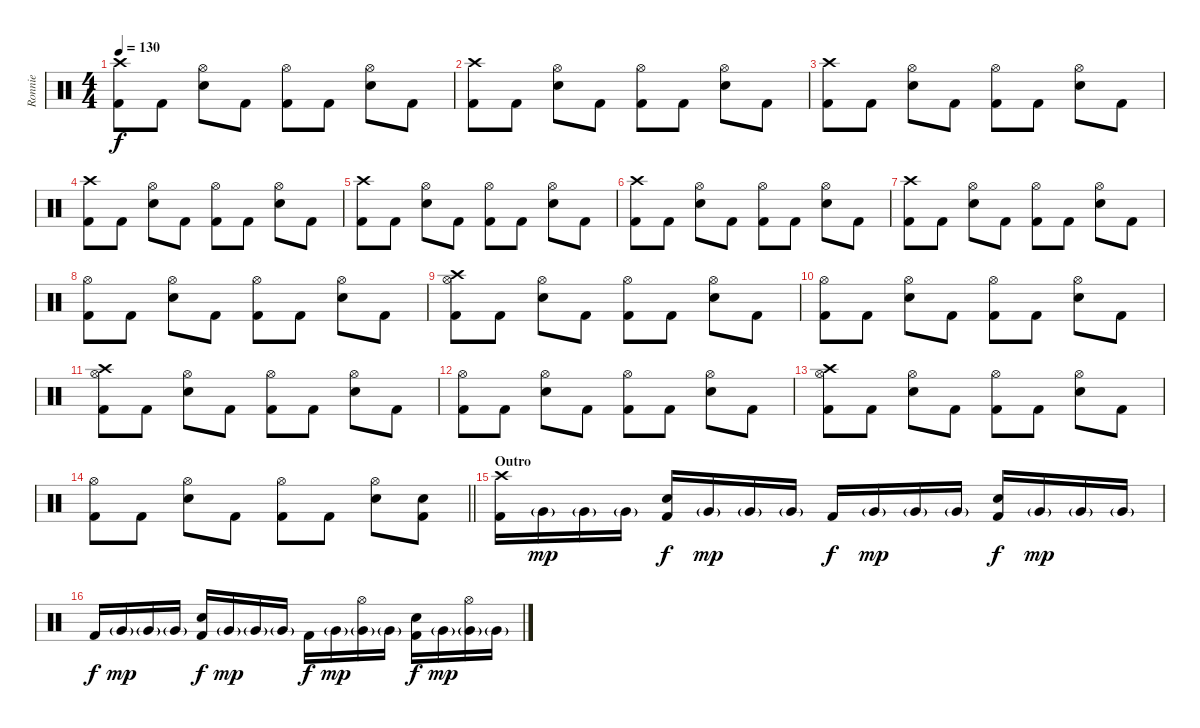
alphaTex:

\track ("Ronnie" "Ronnie") {instrument percussion}
\staff {score}
\articulation defaults
\ts (4 4)
\tempo 130
\clef neutral
\ks c
("Kick (hit) 2" "Crash high (hit)").8{dy f} "Kick (hit) 2".8 ("Electric Snare (hit)" "Hi-Hat (open)").8 "Kick (hit) 2".8 ("Kick (hit) 2" "Hi-Hat (open)").8 "Kick (hit) 2".8 ("Electric Snare (hit)" "Hi-Hat (open)").8 "Kick (hit) 2".8 |
("Kick (hit) 2" "Crash high (hit)").8 "Kick (hit) 2".8 ("Electric Snare (hit)" "Hi-Hat (open)").8 "Kick (hit) 2".8 ("Kick (hit) 2" "Hi-Hat (open)").8 "Kick (hit) 2".8 ("Electric Snare (hit)" "Hi-Hat (open)").8 "Kick (hit) 2".8 |
("Kick (hit) 2" "Crash high (hit)").8 "Kick (hit) 2".8 ("Electric Snare (hit)" "Hi-Hat (open)").8 "Kick (hit) 2".8 ("Kick (hit) 2" "Hi-Hat (open)").8 "Kick (hit) 2".8 ("Electric Snare (hit)" "Hi-Hat (open)").8 "Kick (hit) 2".8 |
("Kick (hit) 2" "Crash high (hit)").8 "Kick (hit) 2".8 ("Electric Snare (hit)" "Hi-Hat (open)").8 "Kick (hit) 2".8 ("Kick (hit) 2" "Hi-Hat (open)").8 "Kick (hit) 2".8 ("Electric Snare (hit)" "Hi-Hat (open)").8 "Kick (hit) 2".8 |
("Kick (hit) 2" "Crash high (hit)").8 "Kick (hit) 2".8 ("Electric Snare (hit)" "Hi-Hat (open)").8 "Kick (hit) 2".8 ("Kick (hit) 2" "Hi-Hat (open)").8 "Kick (hit) 2".8 ("Electric Snare (hit)" "Hi-Hat (open)").8 "Kick (hit) 2".8 |
("Kick (hit) 2" "Crash high (hit)").8 "Kick (hit) 2".8 ("Electric Snare (hit)" "Hi-Hat (open)").8 "Kick (hit) 2".8 ("Kick (hit) 2" "Hi-Hat (open)").8 "Kick (hit) 2".8 ("Electric Snare (hit)" "Hi-Hat (open)").8 "Kick (hit) 2".8 |
("Kick (hit) 2" "Crash high (hit)").8 "Kick (hit) 2".8 ("Electric Snare (hit)" "Hi-Hat (open)").8 "Kick (hit) 2".8 ("Kick (hit) 2" "Hi-Hat (open)").8 "Kick (hit) 2".8 ("Electric Snare (hit)" "Hi-Hat (open)").8 "Kick (hit) 2".8 |
("Kick (hit) 2" "Hi-Hat (open)").8 "Kick (hit) 2".8 ("Electric Snare (hit)" "Hi-Hat (open)").8 "Kick (hit) 2".8 ("Kick (hit) 2" "Hi-Hat (open)").8 "Kick (hit) 2".8 ("Electric Snare (hit)" "Hi-Hat (open)").8 "Kick (hit) 2".8 |
("Crash high (hit)" "Kick (hit) 2" "Hi-Hat (open)").8 "Kick (hit) 2".8 ("Electric Snare (hit)" "Hi-Hat (open)").8 "Kick (hit) 2".8 ("Kick (hit) 2" "Hi-Hat (open)").8 "Kick (hit) 2".8 ("Electric Snare (hit)" "Hi-Hat (open)").8 "Kick (hit) 2".8 |
("Kick (hit) 2" "Hi-Hat (open)").8 "Kick (hit) 2".8 ("Electric Snare (hit)" "Hi-Hat (open)").8 "Kick (hit) 2".8 ("Kick (hit) 2" "Hi-Hat (open)").8 "Kick (hit) 2".8 ("Electric Snare (hit)" "Hi-Hat (open)").8 "Kick (hit) 2".8 |
("Crash high (hit)" "Kick (hit) 2" "Hi-Hat (open)").8 "Kick (hit) 2".8 ("Electric Snare (hit)" "Hi-Hat (open)").8 "Kick (hit) 2".8 ("Kick (hit) 2" "Hi-Hat (open)").8 "Kick (hit) 2".8 ("Electric Snare (hit)" "Hi-Hat (open)").8 "Kick (hit) 2".8 |
("Kick (hit) 2" "Hi-Hat (open)").8 "Kick (hit) 2".8 ("Electric Snare (hit)" "Hi-Hat (open)").8 "Kick (hit) 2".8 ("Kick (hit) 2" "Hi-Hat (open)").8 "Kick (hit) 2".8 ("Electric Snare (hit)" "Hi-Hat (open)").8 "Kick (hit) 2".8 |
("Crash high (hit)" "Kick (hit) 2" "Hi-Hat (open)").8 "Kick (hit) 2".8 ("Electric Snare (hit)" "Hi-Hat (open)").8 "Kick (hit) 2".8 ("Kick (hit) 2" "Hi-Hat (open)").8 "Kick (hit) 2".8 ("Electric Snare (hit)" "Hi-Hat (open)").8 "Kick (hit) 2".8 |
\barLineRight lightlight
("Kick (hit) 2" "Hi-Hat (open)").8 "Kick (hit) 2".8 ("Electric Snare (hit)" "Hi-Hat (open)").8 "Kick (hit) 2".8 ("Kick (hit) 2" "Hi-Hat (open)").8 "Kick (hit) 2".8 ("Electric Snare (hit)" "Hi-Hat (open)").8 ("Kick (hit) 2" "Electric Snare (hit)").8 |
\section ("" "Outro")
("Kick (hit) 2" "Crash high (hit)").16 "Very Low Tom (hit)"{g}.16{dy mp} "Very Low Tom (hit)"{g}.16 "Very Low Tom (hit)"{g}.16 ("Electric Snare (hit)" "Kick (hit) 2").16{dy f} "Very Low Tom (hit)"{g}.16{dy mp} "Very Low Tom (hit)"{g}.16 "Very Low Tom (hit)"{g}.16 "Kick (hit) 2".16{dy f} "Very Low Tom (hit)"{g}.16{dy mp} "Very Low Tom (hit)"{g}.16 "Very Low Tom (hit)"{g}.16 ("Electric Snare (hit)" "Kick (hit) 2").16{dy f} "Very Low Tom (hit)"{g}.16{dy mp} "Very Low Tom (hit)"{g}.16 "Very Low Tom (hit)"{g}.16 |
"Kick (hit) 2".16{dy f} "Very Low Tom (hit)"{g}.16{dy mp} "Very Low Tom (hit)"{g}.16 "Very Low Tom (hit)"{g}.16 ("Electric Snare (hit)" "Kick (hit) 2").16{dy f} "Very Low Tom (hit)"{g}.16{dy mp} "Very Low Tom (hit)"{g}.16 "Very Low Tom (hit)"{g}.16 "Kick (hit) 2".16{dy f} "Very Low Tom (hit)"{g}.16{dy mp} ("Very Low Tom (hit)"{g} "Hi-Hat (open)").16 "Very Low Tom (hit)"{g}.16 ("Electric Snare (hit)" "Kick (hit) 2").16{dy f} "Very Low Tom (hit)"{g}.16{dy mp} ("Very Low Tom (hit)"{g} "Hi-Hat (open)").16 "Very Low Tom (hit)"{g}.16
